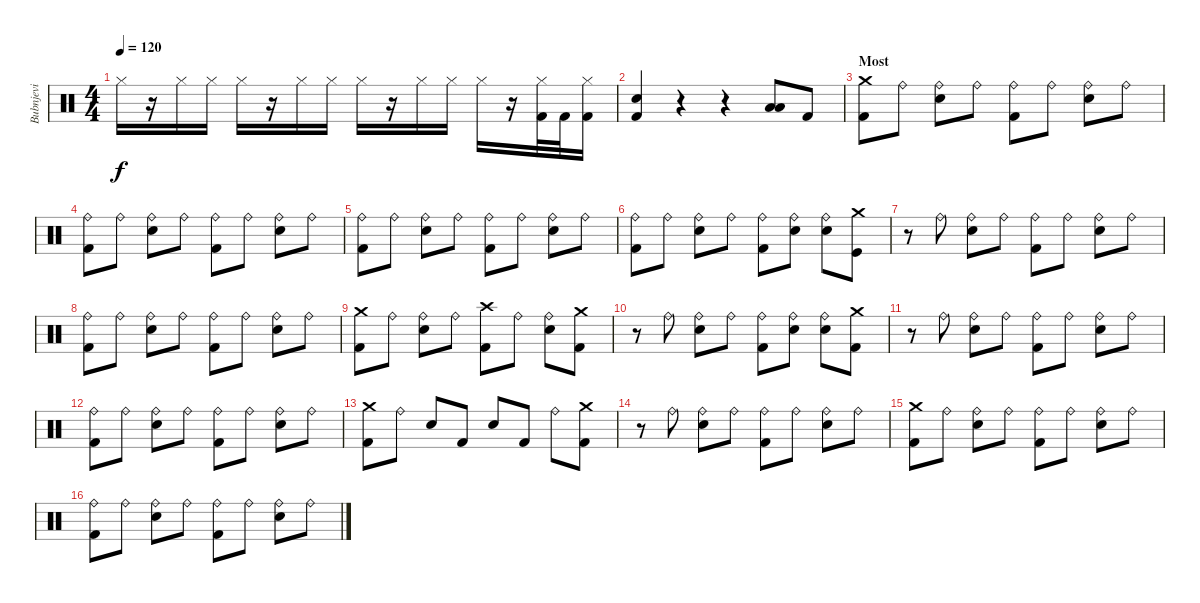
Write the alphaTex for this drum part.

\track ("Bubnjevi" "Bubnjevi") {instrument percussion}
\staff {score}
\articulation defaults
\ts (4 4)
\tempo 120
\clef neutral
\ks c "Hi-Hat (closed)".16{dy f}
r.16 "Hi-Hat (closed)".16 "Hi-Hat (closed)".16 "Hi-Hat (closed)".16 r.16 "Hi-Hat (closed)".16 "Hi-Hat (closed)".16 "Hi-Hat (closed)".16 r.16 "Hi-Hat (closed)".16 "Hi-Hat (closed)".16 "Hi-Hat (closed)".16 r.16 ("Hi-Hat (closed)" "Kick (hit) 2").32 "Kick (hit) 2".32 ("Hi-Hat (closed)" "Kick (hit) 2").16 |
("Electric Snare (hit)" "Kick (hit) 2").4 r.4 r.4 ("Low Tom (hit)" "Low Tom (hit)").8 "Kick (hit) 2".8 |
\section ("" "Most")
("Crash medium (hit)" "Kick (hit) 2").8 "Ride (bell)".8 ("Ride (bell)" "Electric Snare (hit)").8 "Ride (bell)".8 ("Ride (bell)" "Kick (hit) 2").8 "Ride (bell)".8 ("Ride (bell)" "Electric Snare (hit)").8 "Ride (bell)".8 |
("Ride (bell)" "Kick (hit) 2").8 "Ride (bell)".8 ("Ride (bell)" "Electric Snare (hit)").8 "Ride (bell)".8 ("Ride (bell)" "Kick (hit) 2").8 "Ride (bell)".8 ("Ride (bell)" "Electric Snare (hit)").8 "Ride (bell)".8 |
("Ride (bell)" "Kick (hit) 2").8 "Ride (bell)".8 ("Ride (bell)" "Electric Snare (hit)").8 "Ride (bell)".8 ("Ride (bell)" "Kick (hit) 2").8 "Ride (bell)".8 ("Ride (bell)" "Electric Snare (hit)").8 "Ride (bell)".8 |
("Ride (bell)" "Kick (hit) 2").8 "Ride (bell)".8 ("Ride (bell)" "Electric Snare (hit)").8 "Ride (bell)".8 ("Ride (bell)" "Kick (hit) 2").8 ("Ride (bell)" "Electric Snare (hit)").8 ("Ride (bell)" "Electric Snare (hit)").8 ("Crash medium (hit)" "Kick (hit)").8 |
r.8 "Ride (bell)".8 ("Ride (bell)" "Electric Snare (hit)").8 "Ride (bell)".8 ("Ride (bell)" "Kick (hit) 2").8 "Ride (bell)".8 ("Ride (bell)" "Electric Snare (hit)").8 "Ride (bell)".8 |
("Ride (bell)" "Kick (hit) 2").8 "Ride (bell)".8 ("Ride (bell)" "Electric Snare (hit)").8 "Ride (bell)".8 ("Ride (bell)" "Kick (hit) 2").8 "Ride (bell)".8 ("Ride (bell)" "Electric Snare (hit)").8 "Ride (bell)".8 |
("Crash medium (hit)" "Kick (hit) 2").8 "Ride (bell)".8 ("Ride (bell)" "Electric Snare (hit)").8 "Ride (bell)".8 ("Crash high (hit)" "Kick (hit) 2").8 "Ride (bell)".8 ("Ride (bell)" "Electric Snare (hit)").8 ("Crash medium (hit)" "Kick (hit) 2").8 |
r.8 "Ride (bell)".8 ("Ride (bell)" "Electric Snare (hit)").8 "Ride (bell)".8 ("Ride (bell)" "Kick (hit) 2").8 ("Ride (bell)" "Electric Snare (hit)").8 ("Ride (bell)" "Electric Snare (hit)").8 ("Crash medium (hit)" "Kick (hit) 2").8 |
r.8 "Ride (bell)".8 ("Ride (bell)" "Electric Snare (hit)").8 "Ride (bell)".8 ("Ride (bell)" "Kick (hit) 2").8 "Ride (bell)".8 ("Ride (bell)" "Electric Snare (hit)").8 "Ride (bell)".8 |
("Ride (bell)" "Kick (hit) 2").8 "Ride (bell)".8 ("Ride (bell)" "Electric Snare (hit)").8 "Ride (bell)".8 ("Ride (bell)" "Kick (hit) 2").8 "Ride (bell)".8 ("Ride (bell)" "Electric Snare (hit)").8 "Ride (bell)".8 |
("Crash medium (hit)" "Kick (hit) 2").8 "Ride (bell)".8 "Electric Snare (hit)".8 "Kick (hit) 2".8 "Electric Snare (hit)".8 "Kick (hit) 2".8 "Ride (bell)".8 ("Crash medium (hit)" "Kick (hit) 2").8 |
r.8 "Ride (bell)".8 ("Ride (bell)" "Electric Snare (hit)").8 "Ride (bell)".8 ("Ride (bell)" "Kick (hit) 2").8 "Ride (bell)".8 ("Ride (bell)" "Electric Snare (hit)").8 "Ride (bell)".8 |
("Crash medium (hit)" "Kick (hit) 2").8 "Ride (bell)".8 ("Ride (bell)" "Electric Snare (hit)").8 "Ride (bell)".8 ("Ride (bell)" "Kick (hit) 2").8 "Ride (bell)".8 ("Ride (bell)" "Electric Snare (hit)").8 "Ride (bell)".8 |
("Ride (bell)" "Kick (hit) 2").8 "Ride (bell)".8 ("Ride (bell)" "Electric Snare (hit)").8 "Ride (bell)".8 ("Ride (bell)" "Kick (hit) 2").8 "Ride (bell)".8 ("Ride (bell)" "Electric Snare (hit)").8 "Ride (bell)".8
